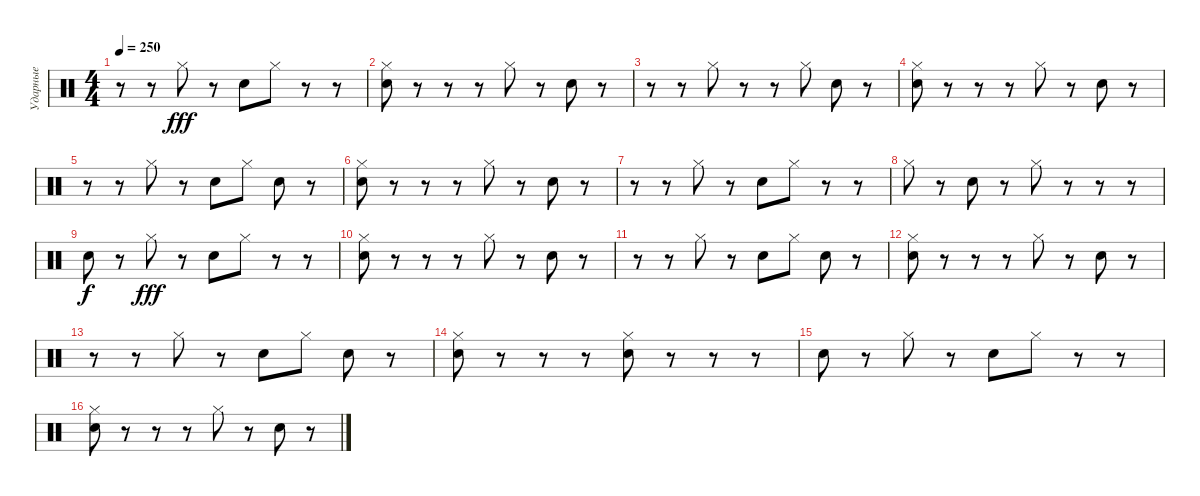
\track ("Ударные" "Ударные") {instrument percussion}
\staff {score}
\articulation defaults
\ts (4 4)
\tempo 250
\clef neutral
\ks c
r.8{dy fff} r.8 "Hi-Hat (closed)".8 r.8 "Snare (hit) 2".8 "Hi-Hat (closed)".8 r.8 r.8 |
("Hi-Hat (closed)" "Snare (hit) 2").8 r.8 r.8 r.8 "Hi-Hat (closed)".8 r.8 "Snare (hit) 2".8 r.8 |
r.8 r.8 "Hi-Hat (closed)".8 r.8 r.8 "Hi-Hat (closed)".8 "Snare (hit) 2".8 r.8 |
("Hi-Hat (closed)" "Snare (hit) 2").8 r.8 r.8 r.8 "Hi-Hat (closed)".8 r.8 "Snare (hit) 2".8 r.8 |
r.8 r.8 "Hi-Hat (closed)".8 r.8 "Snare (hit) 2".8 "Hi-Hat (closed)".8 "Snare (hit) 2".8 r.8 |
("Hi-Hat (closed)" "Snare (hit) 2").8 r.8 r.8 r.8 "Hi-Hat (closed)".8 r.8 "Snare (hit) 2".8 r.8 |
r.8 r.8 "Hi-Hat (closed)".8 r.8 "Snare (hit) 2".8 "Hi-Hat (closed)".8 r.8 r.8 |
"Hi-Hat (closed)".8 r.8 "Snare (hit) 2".8 r.8 "Hi-Hat (closed)".8 r.8 r.8 r.8 |
"Snare (hit) 2".8{dy f} r.8 "Hi-Hat (closed)".8{dy fff} r.8 "Snare (hit) 2".8 "Hi-Hat (closed)".8 r.8 r.8 |
("Hi-Hat (closed)" "Snare (hit) 2").8 r.8 r.8 r.8 "Hi-Hat (closed)".8 r.8 "Snare (hit) 2".8 r.8 |
r.8 r.8 "Hi-Hat (closed)".8 r.8 "Snare (hit) 2".8 "Hi-Hat (closed)".8 "Snare (hit) 2".8 r.8 |
("Hi-Hat (closed)" "Snare (hit) 2").8 r.8 r.8 r.8 "Hi-Hat (closed)".8 r.8 "Snare (hit) 2".8 r.8 |
r.8 r.8 "Hi-Hat (closed)".8 r.8 "Snare (hit) 2".8 "Hi-Hat (closed)".8 "Snare (hit) 2".8 r.8 |
("Hi-Hat (closed)" "Snare (hit) 2").8 r.8 r.8 r.8 ("Hi-Hat (closed)" "Snare (hit) 2").8 r.8 r.8 r.8 |
"Snare (hit) 2".8 r.8 "Hi-Hat (closed)".8 r.8 "Snare (hit) 2".8 "Hi-Hat (closed)".8 r.8 r.8 |
("Hi-Hat (closed)" "Snare (hit) 2").8 r.8 r.8 r.8 "Hi-Hat (closed)".8 r.8 "Snare (hit) 2".8 r.8
